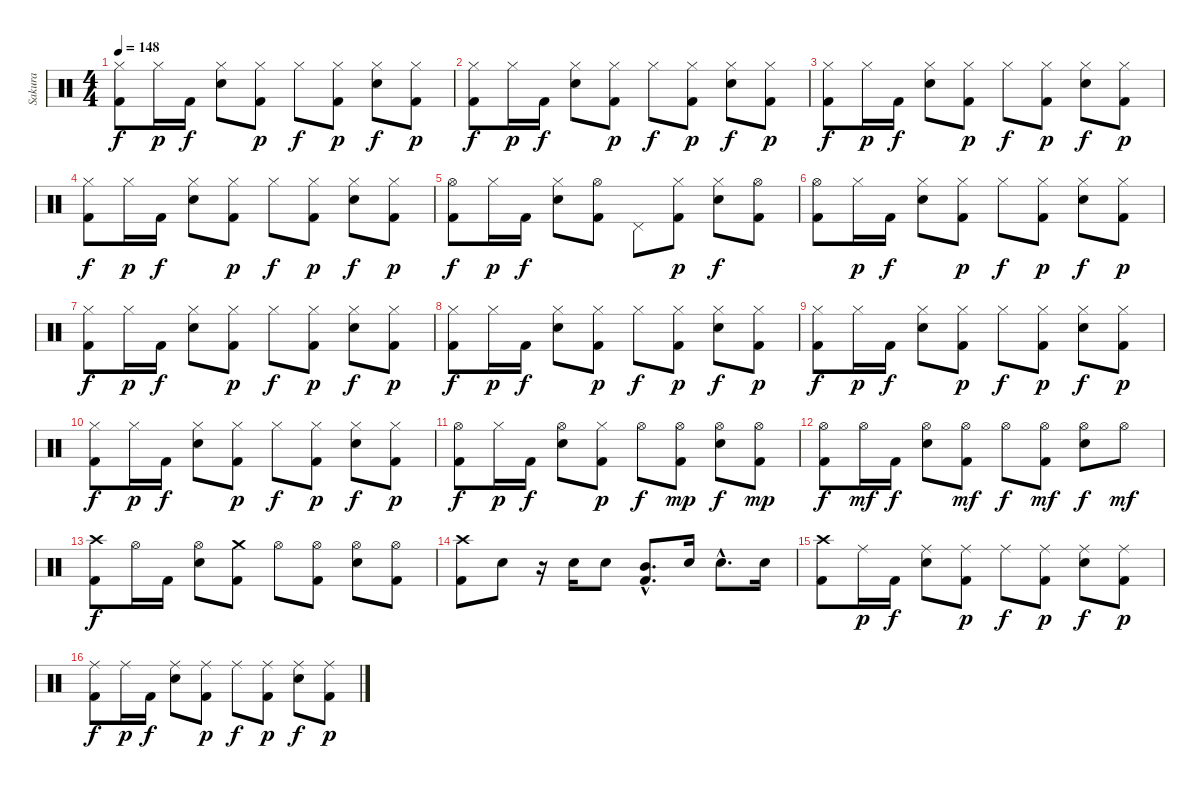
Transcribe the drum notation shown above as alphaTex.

\track ("Sakura" "Sakura") {instrument percussion}
\staff {score}
\articulation defaults
\ts (4 4)
\tempo 148
\clef neutral
\ks c
("Hi-Hat (closed)" "Kick (hit) 2").8{dy f} "Hi-Hat (closed)".16{dy p} "Kick (hit) 2".16{dy f} ("Hi-Hat (closed)" "Electric Snare (hit)").8 ("Hi-Hat (closed)" "Kick (hit) 2").8{dy p} "Hi-Hat (closed)".8{dy f} ("Hi-Hat (closed)" "Kick (hit) 2").8{dy p} ("Hi-Hat (closed)" "Electric Snare (hit)").8{dy f} ("Hi-Hat (closed)" "Kick (hit) 2").8{dy p} |
("Hi-Hat (closed)" "Kick (hit) 2").8{dy f} "Hi-Hat (closed)".16{dy p} "Kick (hit) 2".16{dy f} ("Hi-Hat (closed)" "Electric Snare (hit)").8 ("Hi-Hat (closed)" "Kick (hit) 2").8{dy p} "Hi-Hat (closed)".8{dy f} ("Hi-Hat (closed)" "Kick (hit) 2").8{dy p} ("Hi-Hat (closed)" "Electric Snare (hit)").8{dy f} ("Hi-Hat (closed)" "Kick (hit) 2").8{dy p} |
("Hi-Hat (closed)" "Kick (hit) 2").8{dy f} "Hi-Hat (closed)".16{dy p} "Kick (hit) 2".16{dy f} ("Hi-Hat (closed)" "Electric Snare (hit)").8 ("Hi-Hat (closed)" "Kick (hit) 2").8{dy p} "Hi-Hat (closed)".8{dy f} ("Hi-Hat (closed)" "Kick (hit) 2").8{dy p} ("Hi-Hat (closed)" "Electric Snare (hit)").8{dy f} ("Hi-Hat (closed)" "Kick (hit) 2").8{dy p} |
("Hi-Hat (closed)" "Kick (hit) 2").8{dy f} "Hi-Hat (closed)".16{dy p} "Kick (hit) 2".16{dy f} ("Hi-Hat (closed)" "Electric Snare (hit)").8 ("Hi-Hat (closed)" "Kick (hit) 2").8{dy p} "Hi-Hat (closed)".8{dy f} ("Hi-Hat (closed)" "Kick (hit) 2").8{dy p} ("Hi-Hat (closed)" "Electric Snare (hit)").8{dy f} ("Hi-Hat (closed)" "Kick (hit) 2").8{dy p} |
("Hi-Hat (open)" "Kick (hit) 2").8{dy f} "Hi-Hat (closed)".16{dy p} "Kick (hit) 2".16{dy f} ("Hi-Hat (closed)" "Electric Snare (hit)").8 ("Hi-Hat (open)" "Kick (hit) 2").8 "Pedal Hi-Hat (hit)".8 ("Hi-Hat (closed)" "Kick (hit) 2").8{dy p} ("Hi-Hat (closed)" "Electric Snare (hit)").8{dy f} ("Hi-Hat (open)" "Kick (hit) 2").8 |
("Hi-Hat (open)" "Kick (hit) 2").8 "Hi-Hat (closed)".16{dy p} "Kick (hit) 2".16{dy f} ("Hi-Hat (closed)" "Electric Snare (hit)").8 ("Hi-Hat (closed)" "Kick (hit) 2").8{dy p} "Hi-Hat (closed)".8{dy f} ("Hi-Hat (closed)" "Kick (hit) 2").8{dy p} ("Hi-Hat (closed)" "Electric Snare (hit)").8{dy f} ("Hi-Hat (closed)" "Kick (hit) 2").8{dy p} |
("Hi-Hat (closed)" "Kick (hit) 2").8{dy f} "Hi-Hat (closed)".16{dy p} "Kick (hit) 2".16{dy f} ("Hi-Hat (closed)" "Electric Snare (hit)").8 ("Hi-Hat (closed)" "Kick (hit) 2").8{dy p} "Hi-Hat (closed)".8{dy f} ("Hi-Hat (closed)" "Kick (hit) 2").8{dy p} ("Hi-Hat (closed)" "Electric Snare (hit)").8{dy f} ("Hi-Hat (closed)" "Kick (hit) 2").8{dy p} |
("Hi-Hat (closed)" "Kick (hit) 2").8{dy f} "Hi-Hat (closed)".16{dy p} "Kick (hit) 2".16{dy f} ("Hi-Hat (closed)" "Electric Snare (hit)").8 ("Hi-Hat (closed)" "Kick (hit) 2").8{dy p} "Hi-Hat (closed)".8{dy f} ("Hi-Hat (closed)" "Kick (hit) 2").8{dy p} ("Hi-Hat (closed)" "Electric Snare (hit)").8{dy f} ("Hi-Hat (closed)" "Kick (hit) 2").8{dy p} |
("Hi-Hat (closed)" "Kick (hit) 2").8{dy f} "Hi-Hat (closed)".16{dy p} "Kick (hit) 2".16{dy f} ("Hi-Hat (closed)" "Electric Snare (hit)").8 ("Hi-Hat (closed)" "Kick (hit) 2").8{dy p} "Hi-Hat (closed)".8{dy f} ("Hi-Hat (closed)" "Kick (hit) 2").8{dy p} ("Hi-Hat (closed)" "Electric Snare (hit)").8{dy f} ("Hi-Hat (closed)" "Kick (hit) 2").8{dy p} |
("Hi-Hat (closed)" "Kick (hit) 2").8{dy f} "Hi-Hat (closed)".16{dy p} "Kick (hit) 2".16{dy f} ("Hi-Hat (closed)" "Electric Snare (hit)").8 ("Hi-Hat (closed)" "Kick (hit) 2").8{dy p} "Hi-Hat (closed)".8{dy f} ("Hi-Hat (closed)" "Kick (hit) 2").8{dy p} ("Hi-Hat (closed)" "Electric Snare (hit)").8{dy f} ("Hi-Hat (closed)" "Kick (hit) 2").8{dy p} |
("Hi-Hat (open)" "Kick (hit) 2").8{dy f} "Hi-Hat (closed)".16{dy p} "Kick (hit) 2".16{dy f} ("Hi-Hat (open)" "Electric Snare (hit)").8 ("Hi-Hat (closed)" "Kick (hit) 2").8{dy p} "Hi-Hat (open)".8{dy f} ("Hi-Hat (open)" "Kick (hit) 2").8{dy mp} ("Hi-Hat (open)" "Electric Snare (hit)").8{dy f} ("Hi-Hat (open)" "Kick (hit) 2").8{dy mp} |
("Hi-Hat (open)" "Kick (hit) 2").8{dy f} "Hi-Hat (open)".16{dy mf} "Kick (hit) 2".16{dy f} ("Hi-Hat (open)" "Electric Snare (hit)").8 ("Hi-Hat (open)" "Kick (hit) 2").8{dy mf} "Hi-Hat (open)".8{dy f} ("Hi-Hat (open)" "Kick (hit) 2").8{dy mf} ("Hi-Hat (open)" "Electric Snare (hit)").8{dy f} "Hi-Hat (open)".8{dy mf} |
("Crash high (hit)" "Kick (hit) 2").8{dy f} "Hi-Hat (open)".16 "Kick (hit) 2".16 ("Hi-Hat (open)" "Electric Snare (hit)").8 ("Crash medium (hit)" "Kick (hit) 2").8 "Hi-Hat (open)".8 ("Hi-Hat (open)" "Kick (hit) 2").8 ("Hi-Hat (open)" "Electric Snare (hit)").8 ("Hi-Hat (open)" "Kick (hit) 2").8 |
("Crash high (hit)" "Kick (hit) 2").8 "Electric Snare (hit)".8 r.16 "Electric Snare (hit)".16 "Electric Snare (hit)".8 ("Mid Tom (hit)"{hac} "Kick (hit) 2"{hac}).8{d} "Electric Snare (hit)".16 "Electric Snare (hit)"{hac}.8{d} "Electric Snare (hit)".16 |
("Crash high (hit)" "Kick (hit) 2").8 "Ride (middle)".16{dy p} "Kick (hit) 2".16{dy f} ("Ride (middle)" "Electric Snare (hit)").8 ("Ride (middle)" "Kick (hit) 2").8{dy p} "Ride (middle)".8{dy f} ("Ride (middle)" "Kick (hit) 2").8{dy p} ("Ride (middle)" "Electric Snare (hit)").8{dy f} ("Ride (middle)" "Kick (hit) 2").8{dy p} |
("Ride (middle)" "Kick (hit) 2").8{dy f} "Ride (middle)".16{dy p} "Kick (hit) 2".16{dy f} ("Ride (middle)" "Electric Snare (hit)").8 ("Ride (middle)" "Kick (hit) 2").8{dy p} "Ride (middle)".8{dy f} ("Ride (middle)" "Kick (hit) 2").8{dy p} ("Ride (middle)" "Electric Snare (hit)").8{dy f} ("Ride (middle)" "Kick (hit) 2").8{dy p}
